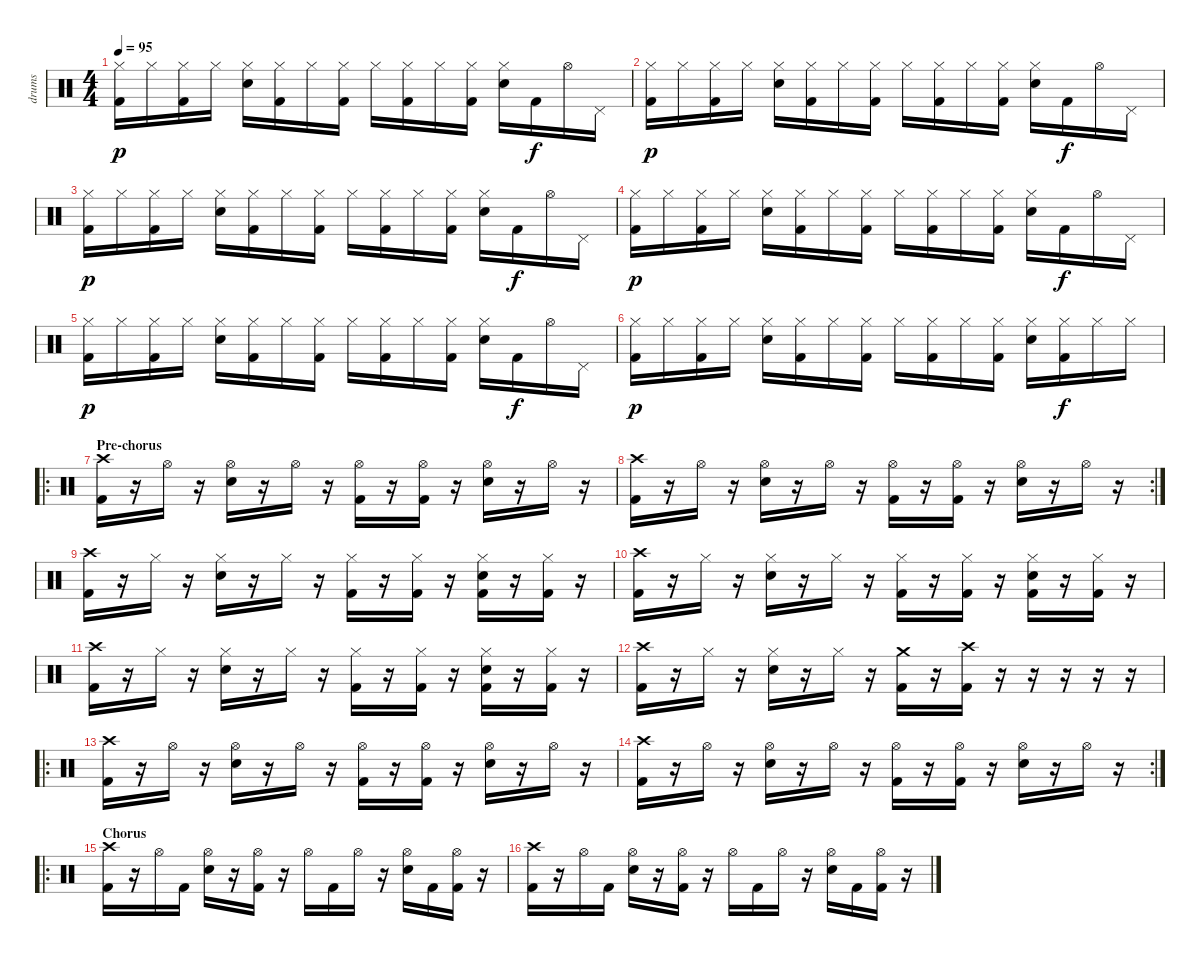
\track ("drums" "drums") {instrument percussion}
\staff {score}
\articulation defaults
\ts (4 4)
\tempo 95
\clef neutral
\ks c
("Kick (hit) 2" "Hi-Hat (closed)").16{dy p} "Hi-Hat (closed)".16 ("Kick (hit) 2" "Hi-Hat (closed)").16 "Hi-Hat (closed)".16 ("Electric Snare (hit)" "Hi-Hat (closed)").16 ("Kick (hit) 2" "Hi-Hat (closed)").16 "Hi-Hat (closed)".16 ("Kick (hit) 2" "Hi-Hat (closed)").16 "Hi-Hat (closed)".16 ("Kick (hit) 2" "Hi-Hat (closed)").16 "Hi-Hat (closed)".16 ("Kick (hit) 2" "Hi-Hat (closed)").16 ("Electric Snare (hit)" "Hi-Hat (closed)").16 "Kick (hit) 2".16{dy f} "Hi-Hat (open)".16 "Pedal Hi-Hat (hit)".16 |
("Kick (hit) 2" "Hi-Hat (closed)").16{dy p} "Hi-Hat (closed)".16 ("Kick (hit) 2" "Hi-Hat (closed)").16 "Hi-Hat (closed)".16 ("Electric Snare (hit)" "Hi-Hat (closed)").16 ("Kick (hit) 2" "Hi-Hat (closed)").16 "Hi-Hat (closed)".16 ("Kick (hit) 2" "Hi-Hat (closed)").16 "Hi-Hat (closed)".16 ("Kick (hit) 2" "Hi-Hat (closed)").16 "Hi-Hat (closed)".16 ("Kick (hit) 2" "Hi-Hat (closed)").16 ("Electric Snare (hit)" "Hi-Hat (closed)").16 "Kick (hit) 2".16{dy f} "Hi-Hat (open)".16 "Pedal Hi-Hat (hit)".16 |
("Kick (hit) 2" "Hi-Hat (closed)").16{dy p} "Hi-Hat (closed)".16 ("Kick (hit) 2" "Hi-Hat (closed)").16 "Hi-Hat (closed)".16 ("Electric Snare (hit)" "Hi-Hat (closed)").16 ("Kick (hit) 2" "Hi-Hat (closed)").16 "Hi-Hat (closed)".16 ("Kick (hit) 2" "Hi-Hat (closed)").16 "Hi-Hat (closed)".16 ("Kick (hit) 2" "Hi-Hat (closed)").16 "Hi-Hat (closed)".16 ("Kick (hit) 2" "Hi-Hat (closed)").16 ("Electric Snare (hit)" "Hi-Hat (closed)").16 "Kick (hit) 2".16{dy f} "Hi-Hat (open)".16 "Pedal Hi-Hat (hit)".16 |
("Kick (hit) 2" "Hi-Hat (closed)").16{dy p} "Hi-Hat (closed)".16 ("Kick (hit) 2" "Hi-Hat (closed)").16 "Hi-Hat (closed)".16 ("Electric Snare (hit)" "Hi-Hat (closed)").16 ("Kick (hit) 2" "Hi-Hat (closed)").16 "Hi-Hat (closed)".16 ("Kick (hit) 2" "Hi-Hat (closed)").16 "Hi-Hat (closed)".16 ("Kick (hit) 2" "Hi-Hat (closed)").16 "Hi-Hat (closed)".16 ("Kick (hit) 2" "Hi-Hat (closed)").16 ("Electric Snare (hit)" "Hi-Hat (closed)").16 "Kick (hit) 2".16{dy f} "Hi-Hat (open)".16 "Pedal Hi-Hat (hit)".16 |
("Kick (hit) 2" "Hi-Hat (closed)").16{dy p} "Hi-Hat (closed)".16 ("Kick (hit) 2" "Hi-Hat (closed)").16 "Hi-Hat (closed)".16 ("Electric Snare (hit)" "Hi-Hat (closed)").16 ("Kick (hit) 2" "Hi-Hat (closed)").16 "Hi-Hat (closed)".16 ("Kick (hit) 2" "Hi-Hat (closed)").16 "Hi-Hat (closed)".16 ("Kick (hit) 2" "Hi-Hat (closed)").16 "Hi-Hat (closed)".16 ("Kick (hit) 2" "Hi-Hat (closed)").16 ("Electric Snare (hit)" "Hi-Hat (closed)").16 "Kick (hit) 2".16{dy f} "Hi-Hat (open)".16 "Pedal Hi-Hat (hit)".16 |
("Kick (hit) 2" "Hi-Hat (closed)").16{dy p} "Hi-Hat (closed)".16 ("Kick (hit) 2" "Hi-Hat (closed)").16 "Hi-Hat (closed)".16 ("Electric Snare (hit)" "Hi-Hat (closed)").16 ("Kick (hit) 2" "Hi-Hat (closed)").16 "Hi-Hat (closed)".16 ("Kick (hit) 2" "Hi-Hat (closed)").16 "Hi-Hat (closed)".16 ("Kick (hit) 2" "Hi-Hat (closed)").16 "Hi-Hat (closed)".16 ("Kick (hit) 2" "Hi-Hat (closed)").16 ("Electric Snare (hit)" "Hi-Hat (closed)").16 ("Kick (hit) 2" "Hi-Hat (closed)").16{dy f} "Hi-Hat (closed)".16 "Hi-Hat (closed)".16 |
\ro
\section ("" "Pre-chorus")
("Kick (hit) 2" "Crash high (hit)").16 r.16 "Hi-Hat (open)".16 r.16 ("Electric Snare (hit)" "Hi-Hat (open)").16 r.16 "Hi-Hat (open)".16 r.16 ("Kick (hit) 2" "Hi-Hat (open)").16 r.16 ("Kick (hit) 2" "Hi-Hat (open)").16 r.16 ("Electric Snare (hit)" "Hi-Hat (open)").16 r.16 "Hi-Hat (open)".16 r.16 |
\rc 2
("Kick (hit) 2" "Crash high (hit)").16 r.16 "Hi-Hat (open)".16 r.16 ("Electric Snare (hit)" "Hi-Hat (open)").16 r.16 "Hi-Hat (open)".16 r.16 ("Kick (hit) 2" "Hi-Hat (open)").16 r.16 ("Kick (hit) 2" "Hi-Hat (open)").16 r.16 ("Electric Snare (hit)" "Hi-Hat (open)").16 r.16 "Hi-Hat (open)".16 r.16 |
("Kick (hit) 2" "Crash high (hit)").16 r.16 "Hi-Hat (closed)".16 r.16 ("Electric Snare (hit)" "Hi-Hat (closed)").16 r.16 "Hi-Hat (closed)".16 r.16 ("Kick (hit) 2" "Hi-Hat (closed)").16 r.16 ("Kick (hit) 2" "Hi-Hat (closed)").16 r.16 ("Kick (hit) 2" "Electric Snare (hit)" "Hi-Hat (closed)").16 r.16 ("Kick (hit) 2" "Hi-Hat (closed)").16 r.16 |
("Kick (hit) 2" "Crash high (hit)").16 r.16 "Hi-Hat (closed)".16 r.16 ("Electric Snare (hit)" "Hi-Hat (closed)").16 r.16 "Hi-Hat (closed)".16 r.16 ("Kick (hit) 2" "Hi-Hat (closed)").16 r.16 ("Kick (hit) 2" "Hi-Hat (closed)").16 r.16 ("Kick (hit) 2" "Electric Snare (hit)" "Hi-Hat (closed)").16 r.16 ("Kick (hit) 2" "Hi-Hat (closed)").16 r.16 |
("Kick (hit) 2" "Crash high (hit)").16 r.16 "Hi-Hat (closed)".16 r.16 ("Electric Snare (hit)" "Hi-Hat (closed)").16 r.16 "Hi-Hat (closed)".16 r.16 ("Kick (hit) 2" "Hi-Hat (closed)").16 r.16 ("Kick (hit) 2" "Hi-Hat (closed)").16 r.16 ("Kick (hit) 2" "Electric Snare (hit)" "Hi-Hat (closed)").16 r.16 ("Kick (hit) 2" "Hi-Hat (closed)").16 r.16 |
("Kick (hit) 2" "Crash high (hit)").16 r.16 "Hi-Hat (closed)".16 r.16 ("Electric Snare (hit)" "Hi-Hat (closed)").16 r.16 "Hi-Hat (closed)".16 r.16 ("Kick (hit) 2" "Crash medium (hit)").16 r.16 ("Kick (hit) 2" "Crash high (hit)").16 r.16 r.16 r.16 r.16 r.16 |
\ro
("Kick (hit) 2" "Crash high (hit)").16 r.16 "Hi-Hat (open)".16 r.16 ("Electric Snare (hit)" "Hi-Hat (open)").16 r.16 "Hi-Hat (open)".16 r.16 ("Kick (hit) 2" "Hi-Hat (open)").16 r.16 ("Kick (hit) 2" "Hi-Hat (open)").16 r.16 ("Electric Snare (hit)" "Hi-Hat (open)").16 r.16 "Hi-Hat (open)".16 r.16 |
\rc 2
("Kick (hit) 2" "Crash high (hit)").16 r.16 "Hi-Hat (open)".16 r.16 ("Electric Snare (hit)" "Hi-Hat (open)").16 r.16 "Hi-Hat (open)".16 r.16 ("Kick (hit) 2" "Hi-Hat (open)").16 r.16 ("Kick (hit) 2" "Hi-Hat (open)").16 r.16 ("Electric Snare (hit)" "Hi-Hat (open)").16 r.16 "Hi-Hat (open)".16 r.16 |
\ro
\section ("" "Chorus")
("Kick (hit) 2" "Crash high (hit)").16 r.16 "Hi-Hat (open)".16 "Kick (hit) 2".16 ("Electric Snare (hit)" "Hi-Hat (open)").16 r.16 ("Kick (hit) 2" "Hi-Hat (open)").16 r.16 "Hi-Hat (open)".16 "Kick (hit) 2".16 "Hi-Hat (open)".16 r.16 ("Electric Snare (hit)" "Hi-Hat (open)").16 "Kick (hit) 2".16 ("Kick (hit) 2" "Hi-Hat (open)").16 r.16 |
("Kick (hit) 2" "Crash high (hit)").16 r.16 "Hi-Hat (open)".16 "Kick (hit) 2".16 ("Electric Snare (hit)" "Hi-Hat (open)").16 r.16 ("Kick (hit) 2" "Hi-Hat (open)").16 r.16 "Hi-Hat (open)".16 "Kick (hit) 2".16 "Hi-Hat (open)".16 r.16 ("Electric Snare (hit)" "Hi-Hat (open)").16 "Kick (hit) 2".16 ("Kick (hit) 2" "Hi-Hat (open)").16 r.16
